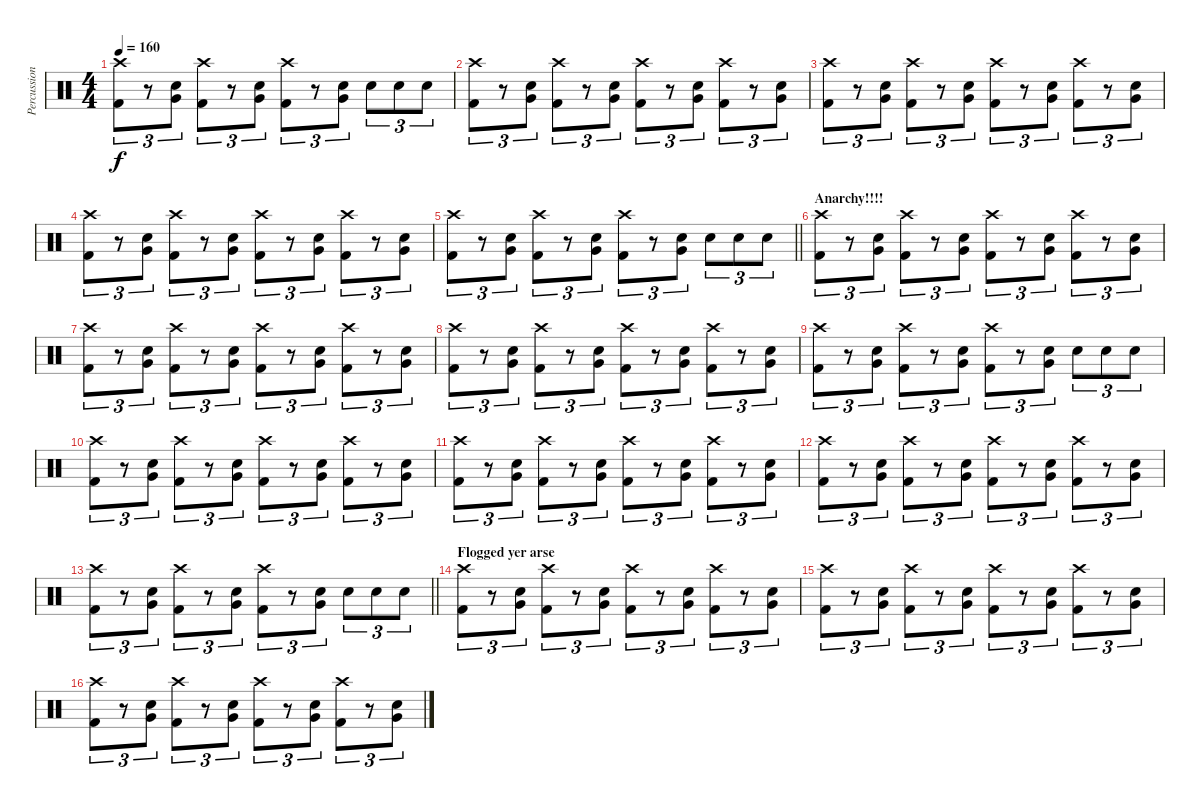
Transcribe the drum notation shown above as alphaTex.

\track ("Percussion" "Percussion") {instrument percussion}
\staff {score}
\articulation defaults
\ts (4 4)
\tempo 160
\clef neutral
\ks c
("Crash high (hit)" "Kick (hit) 2").8{tu (3 2) dy f} r.8{tu (3 2)} ("Snare (hit) 2" "Very Low Tom (hit)").8{tu (3 2)} ("Crash high (hit)" "Kick (hit) 2").8{tu (3 2)} r.8{tu (3 2)} ("Snare (hit) 2" "Very Low Tom (hit)").8{tu (3 2)} ("Crash high (hit)" "Kick (hit) 2").8{tu (3 2)} r.8{tu (3 2)} ("Snare (hit) 2" "Very Low Tom (hit)").8{tu (3 2)} "Snare (hit) 2".8{tu (3 2)} "Snare (hit) 2".8{tu (3 2)} "Snare (hit) 2".8{tu (3 2)} |
("Crash high (hit)" "Kick (hit) 2").8{tu (3 2)} r.8{tu (3 2)} ("Snare (hit) 2" "Very Low Tom (hit)").8{tu (3 2)} ("Crash high (hit)" "Kick (hit) 2").8{tu (3 2)} r.8{tu (3 2)} ("Snare (hit) 2" "Very Low Tom (hit)").8{tu (3 2)} ("Crash high (hit)" "Kick (hit) 2").8{tu (3 2)} r.8{tu (3 2)} ("Snare (hit) 2" "Very Low Tom (hit)").8{tu (3 2)} ("Crash high (hit)" "Kick (hit) 2").8{tu (3 2)} r.8{tu (3 2)} ("Snare (hit) 2" "Very Low Tom (hit)").8{tu (3 2)} |
("Crash high (hit)" "Kick (hit) 2").8{tu (3 2)} r.8{tu (3 2)} ("Snare (hit) 2" "Very Low Tom (hit)").8{tu (3 2)} ("Crash high (hit)" "Kick (hit) 2").8{tu (3 2)} r.8{tu (3 2)} ("Snare (hit) 2" "Very Low Tom (hit)").8{tu (3 2)} ("Crash high (hit)" "Kick (hit) 2").8{tu (3 2)} r.8{tu (3 2)} ("Snare (hit) 2" "Very Low Tom (hit)").8{tu (3 2)} ("Crash high (hit)" "Kick (hit) 2").8{tu (3 2)} r.8{tu (3 2)} ("Snare (hit) 2" "Very Low Tom (hit)").8{tu (3 2)} |
("Crash high (hit)" "Kick (hit) 2").8{tu (3 2)} r.8{tu (3 2)} ("Snare (hit) 2" "Very Low Tom (hit)").8{tu (3 2)} ("Crash high (hit)" "Kick (hit) 2").8{tu (3 2)} r.8{tu (3 2)} ("Snare (hit) 2" "Very Low Tom (hit)").8{tu (3 2)} ("Crash high (hit)" "Kick (hit) 2").8{tu (3 2)} r.8{tu (3 2)} ("Snare (hit) 2" "Very Low Tom (hit)").8{tu (3 2)} ("Crash high (hit)" "Kick (hit) 2").8{tu (3 2)} r.8{tu (3 2)} ("Snare (hit) 2" "Very Low Tom (hit)").8{tu (3 2)} |
\barLineRight lightlight
("Crash high (hit)" "Kick (hit) 2").8{tu (3 2)} r.8{tu (3 2)} ("Snare (hit) 2" "Very Low Tom (hit)").8{tu (3 2)} ("Crash high (hit)" "Kick (hit) 2").8{tu (3 2)} r.8{tu (3 2)} ("Snare (hit) 2" "Very Low Tom (hit)").8{tu (3 2)} ("Crash high (hit)" "Kick (hit) 2").8{tu (3 2)} r.8{tu (3 2)} ("Snare (hit) 2" "Very Low Tom (hit)").8{tu (3 2)} "Snare (hit) 2".8{tu (3 2)} "Snare (hit) 2".8{tu (3 2)} "Snare (hit) 2".8{tu (3 2)} |
\section ("" "Anarchy!!!!")
("Crash high (hit)" "Kick (hit) 2").8{tu (3 2)} r.8{tu (3 2)} ("Snare (hit) 2" "Very Low Tom (hit)").8{tu (3 2)} ("Crash high (hit)" "Kick (hit) 2").8{tu (3 2)} r.8{tu (3 2)} ("Snare (hit) 2" "Very Low Tom (hit)").8{tu (3 2)} ("Crash high (hit)" "Kick (hit) 2").8{tu (3 2)} r.8{tu (3 2)} ("Snare (hit) 2" "Very Low Tom (hit)").8{tu (3 2)} ("Crash high (hit)" "Kick (hit) 2").8{tu (3 2)} r.8{tu (3 2)} ("Snare (hit) 2" "Very Low Tom (hit)").8{tu (3 2)} |
("Crash high (hit)" "Kick (hit) 2").8{tu (3 2)} r.8{tu (3 2)} ("Snare (hit) 2" "Very Low Tom (hit)").8{tu (3 2)} ("Crash high (hit)" "Kick (hit) 2").8{tu (3 2)} r.8{tu (3 2)} ("Snare (hit) 2" "Very Low Tom (hit)").8{tu (3 2)} ("Crash high (hit)" "Kick (hit) 2").8{tu (3 2)} r.8{tu (3 2)} ("Snare (hit) 2" "Very Low Tom (hit)").8{tu (3 2)} ("Crash high (hit)" "Kick (hit) 2").8{tu (3 2)} r.8{tu (3 2)} ("Snare (hit) 2" "Very Low Tom (hit)").8{tu (3 2)} |
("Crash high (hit)" "Kick (hit) 2").8{tu (3 2)} r.8{tu (3 2)} ("Snare (hit) 2" "Very Low Tom (hit)").8{tu (3 2)} ("Crash high (hit)" "Kick (hit) 2").8{tu (3 2)} r.8{tu (3 2)} ("Snare (hit) 2" "Very Low Tom (hit)").8{tu (3 2)} ("Crash high (hit)" "Kick (hit) 2").8{tu (3 2)} r.8{tu (3 2)} ("Snare (hit) 2" "Very Low Tom (hit)").8{tu (3 2)} ("Crash high (hit)" "Kick (hit) 2").8{tu (3 2)} r.8{tu (3 2)} ("Snare (hit) 2" "Very Low Tom (hit)").8{tu (3 2)} |
("Crash high (hit)" "Kick (hit) 2").8{tu (3 2)} r.8{tu (3 2)} ("Snare (hit) 2" "Very Low Tom (hit)").8{tu (3 2)} ("Crash high (hit)" "Kick (hit) 2").8{tu (3 2)} r.8{tu (3 2)} ("Snare (hit) 2" "Very Low Tom (hit)").8{tu (3 2)} ("Crash high (hit)" "Kick (hit) 2").8{tu (3 2)} r.8{tu (3 2)} ("Snare (hit) 2" "Very Low Tom (hit)").8{tu (3 2)} "Snare (hit) 2".8{tu (3 2)} "Snare (hit) 2".8{tu (3 2)} "Snare (hit) 2".8{tu (3 2)} |
("Crash high (hit)" "Kick (hit) 2").8{tu (3 2)} r.8{tu (3 2)} ("Snare (hit) 2" "Very Low Tom (hit)").8{tu (3 2)} ("Crash high (hit)" "Kick (hit) 2").8{tu (3 2)} r.8{tu (3 2)} ("Snare (hit) 2" "Very Low Tom (hit)").8{tu (3 2)} ("Crash high (hit)" "Kick (hit) 2").8{tu (3 2)} r.8{tu (3 2)} ("Snare (hit) 2" "Very Low Tom (hit)").8{tu (3 2)} ("Crash high (hit)" "Kick (hit) 2").8{tu (3 2)} r.8{tu (3 2)} ("Snare (hit) 2" "Very Low Tom (hit)").8{tu (3 2)} |
("Crash high (hit)" "Kick (hit) 2").8{tu (3 2)} r.8{tu (3 2)} ("Snare (hit) 2" "Very Low Tom (hit)").8{tu (3 2)} ("Crash high (hit)" "Kick (hit) 2").8{tu (3 2)} r.8{tu (3 2)} ("Snare (hit) 2" "Very Low Tom (hit)").8{tu (3 2)} ("Crash high (hit)" "Kick (hit) 2").8{tu (3 2)} r.8{tu (3 2)} ("Snare (hit) 2" "Very Low Tom (hit)").8{tu (3 2)} ("Crash high (hit)" "Kick (hit) 2").8{tu (3 2)} r.8{tu (3 2)} ("Snare (hit) 2" "Very Low Tom (hit)").8{tu (3 2)} |
("Crash high (hit)" "Kick (hit) 2").8{tu (3 2)} r.8{tu (3 2)} ("Snare (hit) 2" "Very Low Tom (hit)").8{tu (3 2)} ("Crash high (hit)" "Kick (hit) 2").8{tu (3 2)} r.8{tu (3 2)} ("Snare (hit) 2" "Very Low Tom (hit)").8{tu (3 2)} ("Crash high (hit)" "Kick (hit) 2").8{tu (3 2)} r.8{tu (3 2)} ("Snare (hit) 2" "Very Low Tom (hit)").8{tu (3 2)} ("Crash high (hit)" "Kick (hit) 2").8{tu (3 2)} r.8{tu (3 2)} ("Snare (hit) 2" "Very Low Tom (hit)").8{tu (3 2)} |
\barLineRight lightlight
("Crash high (hit)" "Kick (hit) 2").8{tu (3 2)} r.8{tu (3 2)} ("Snare (hit) 2" "Very Low Tom (hit)").8{tu (3 2)} ("Crash high (hit)" "Kick (hit) 2").8{tu (3 2)} r.8{tu (3 2)} ("Snare (hit) 2" "Very Low Tom (hit)").8{tu (3 2)} ("Crash high (hit)" "Kick (hit) 2").8{tu (3 2)} r.8{tu (3 2)} ("Snare (hit) 2" "Very Low Tom (hit)").8{tu (3 2)} "Snare (hit) 2".8{tu (3 2)} "Snare (hit) 2".8{tu (3 2)} "Snare (hit) 2".8{tu (3 2)} |
\section ("" "Flogged yer arse")
("Crash high (hit)" "Kick (hit) 2").8{tu (3 2)} r.8{tu (3 2)} ("Snare (hit) 2" "Very Low Tom (hit)").8{tu (3 2)} ("Crash high (hit)" "Kick (hit) 2").8{tu (3 2)} r.8{tu (3 2)} ("Snare (hit) 2" "Very Low Tom (hit)").8{tu (3 2)} ("Crash high (hit)" "Kick (hit) 2").8{tu (3 2)} r.8{tu (3 2)} ("Snare (hit) 2" "Very Low Tom (hit)").8{tu (3 2)} ("Crash high (hit)" "Kick (hit) 2").8{tu (3 2)} r.8{tu (3 2)} ("Snare (hit) 2" "Very Low Tom (hit)").8{tu (3 2)} |
("Crash high (hit)" "Kick (hit) 2").8{tu (3 2)} r.8{tu (3 2)} ("Snare (hit) 2" "Very Low Tom (hit)").8{tu (3 2)} ("Crash high (hit)" "Kick (hit) 2").8{tu (3 2)} r.8{tu (3 2)} ("Snare (hit) 2" "Very Low Tom (hit)").8{tu (3 2)} ("Crash high (hit)" "Kick (hit) 2").8{tu (3 2)} r.8{tu (3 2)} ("Snare (hit) 2" "Very Low Tom (hit)").8{tu (3 2)} ("Crash high (hit)" "Kick (hit) 2").8{tu (3 2)} r.8{tu (3 2)} ("Snare (hit) 2" "Very Low Tom (hit)").8{tu (3 2)} |
("Crash high (hit)" "Kick (hit) 2").8{tu (3 2)} r.8{tu (3 2)} ("Snare (hit) 2" "Very Low Tom (hit)").8{tu (3 2)} ("Crash high (hit)" "Kick (hit) 2").8{tu (3 2)} r.8{tu (3 2)} ("Snare (hit) 2" "Very Low Tom (hit)").8{tu (3 2)} ("Crash high (hit)" "Kick (hit) 2").8{tu (3 2)} r.8{tu (3 2)} ("Snare (hit) 2" "Very Low Tom (hit)").8{tu (3 2)} ("Crash high (hit)" "Kick (hit) 2").8{tu (3 2)} r.8{tu (3 2)} ("Snare (hit) 2" "Very Low Tom (hit)").8{tu (3 2)}
